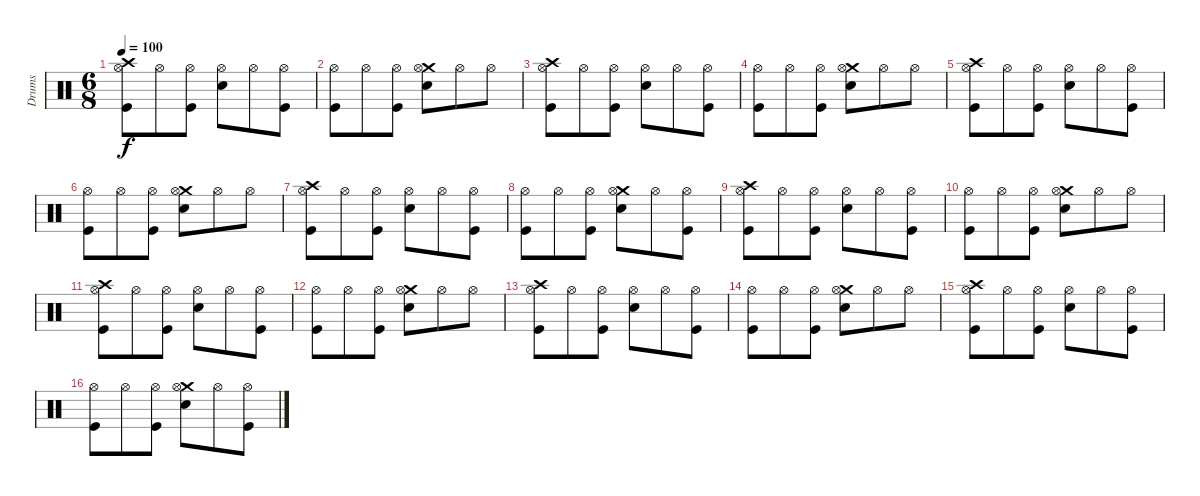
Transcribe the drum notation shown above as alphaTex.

\track ("Drums" "Drums") {instrument percussion}
\staff {score}
\articulation defaults
\ts (6 8)
\tempo 100
\clef neutral
\ks c
("Crash high (hit)" "Hi-Hat (open)" "Kick (hit)").8{dy f} "Hi-Hat (open)".8 ("Hi-Hat (open)" "Kick (hit)").8 ("Hi-Hat (open)" "Electric Snare (hit)").8 "Hi-Hat (open)".8 ("Hi-Hat (open)" "Kick (hit)").8 |
("Hi-Hat (open)" "Kick (hit)").8 "Hi-Hat (open)".8 ("Hi-Hat (open)" "Kick (hit)").8 ("Crash medium (hit)" "Hi-Hat (open)" "Electric Snare (hit)").8 "Hi-Hat (open)".8 "Hi-Hat (open)".8 |
("Crash high (hit)" "Hi-Hat (open)" "Kick (hit)").8 "Hi-Hat (open)".8 ("Hi-Hat (open)" "Kick (hit)").8 ("Hi-Hat (open)" "Electric Snare (hit)").8 "Hi-Hat (open)".8 ("Hi-Hat (open)" "Kick (hit)").8 |
("Hi-Hat (open)" "Kick (hit)").8 "Hi-Hat (open)".8 ("Hi-Hat (open)" "Kick (hit)").8 ("Crash medium (hit)" "Hi-Hat (open)" "Electric Snare (hit)").8 "Hi-Hat (open)".8 "Hi-Hat (open)".8 |
("Crash high (hit)" "Hi-Hat (open)" "Kick (hit)").8 "Hi-Hat (open)".8 ("Hi-Hat (open)" "Kick (hit)").8 ("Hi-Hat (open)" "Electric Snare (hit)").8 "Hi-Hat (open)".8 ("Hi-Hat (open)" "Kick (hit)").8 |
("Hi-Hat (open)" "Kick (hit)").8 "Hi-Hat (open)".8 ("Hi-Hat (open)" "Kick (hit)").8 ("Crash medium (hit)" "Hi-Hat (open)" "Electric Snare (hit)").8 "Hi-Hat (open)".8 "Hi-Hat (open)".8 |
("Crash high (hit)" "Hi-Hat (open)" "Kick (hit)").8 "Hi-Hat (open)".8 ("Hi-Hat (open)" "Kick (hit)").8 ("Hi-Hat (open)" "Electric Snare (hit)").8 "Hi-Hat (open)".8 ("Hi-Hat (open)" "Kick (hit)").8 |
("Hi-Hat (open)" "Kick (hit)").8 "Hi-Hat (open)".8 ("Hi-Hat (open)" "Kick (hit)").8 ("Crash medium (hit)" "Hi-Hat (open)" "Electric Snare (hit)").8 "Hi-Hat (open)".8 ("Hi-Hat (open)" "Kick (hit)").8 |
("Crash high (hit)" "Hi-Hat (open)" "Kick (hit)").8 "Hi-Hat (open)".8 ("Hi-Hat (open)" "Kick (hit)").8 ("Hi-Hat (open)" "Electric Snare (hit)").8 "Hi-Hat (open)".8 ("Hi-Hat (open)" "Kick (hit)").8 |
("Hi-Hat (open)" "Kick (hit)").8 "Hi-Hat (open)".8 ("Hi-Hat (open)" "Kick (hit)").8 ("Crash medium (hit)" "Hi-Hat (open)" "Electric Snare (hit)").8 "Hi-Hat (open)".8 "Hi-Hat (open)".8 |
("Crash high (hit)" "Hi-Hat (open)" "Kick (hit)").8 "Hi-Hat (open)".8 ("Hi-Hat (open)" "Kick (hit)").8 ("Hi-Hat (open)" "Electric Snare (hit)").8 "Hi-Hat (open)".8 ("Hi-Hat (open)" "Kick (hit)").8 |
("Hi-Hat (open)" "Kick (hit)").8 "Hi-Hat (open)".8 ("Hi-Hat (open)" "Kick (hit)").8 ("Crash medium (hit)" "Hi-Hat (open)" "Electric Snare (hit)").8 "Hi-Hat (open)".8 "Hi-Hat (open)".8 |
("Crash high (hit)" "Hi-Hat (open)" "Kick (hit)").8 "Hi-Hat (open)".8 ("Hi-Hat (open)" "Kick (hit)").8 ("Hi-Hat (open)" "Electric Snare (hit)").8 "Hi-Hat (open)".8 ("Hi-Hat (open)" "Kick (hit)").8 |
("Hi-Hat (open)" "Kick (hit)").8 "Hi-Hat (open)".8 ("Hi-Hat (open)" "Kick (hit)").8 ("Crash medium (hit)" "Hi-Hat (open)" "Electric Snare (hit)").8 "Hi-Hat (open)".8 "Hi-Hat (open)".8 |
("Crash high (hit)" "Hi-Hat (open)" "Kick (hit)").8 "Hi-Hat (open)".8 ("Hi-Hat (open)" "Kick (hit)").8 ("Hi-Hat (open)" "Electric Snare (hit)").8 "Hi-Hat (open)".8 ("Hi-Hat (open)" "Kick (hit)").8 |
("Hi-Hat (open)" "Kick (hit)").8 "Hi-Hat (open)".8 ("Hi-Hat (open)" "Kick (hit)").8 ("Crash medium (hit)" "Hi-Hat (open)" "Electric Snare (hit)").8 "Hi-Hat (open)".8 ("Hi-Hat (open)" "Kick (hit)").8
